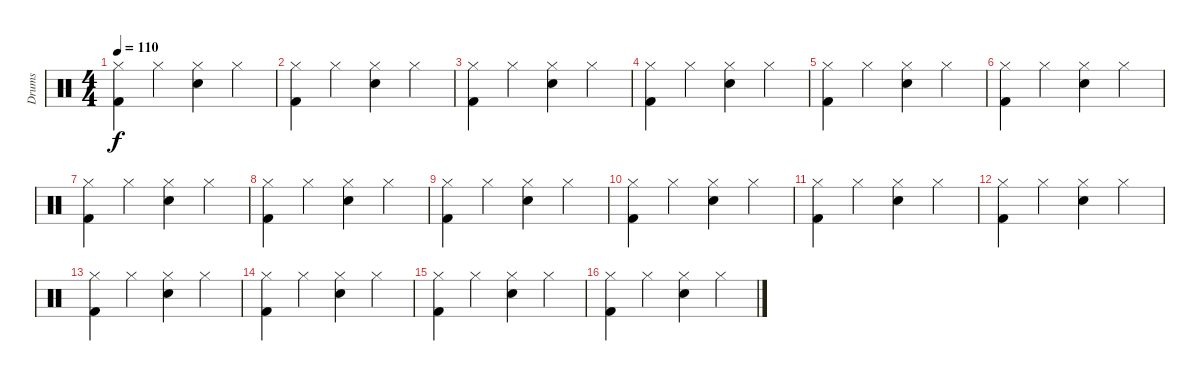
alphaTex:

\track ("Drums" "Drums") {instrument percussion}
\staff {score}
\articulation defaults
\ts (4 4)
\tempo 110
\clef neutral
\ks c
("Hi-Hat (closed)" "Kick (hit) 2").4{dy f} "Hi-Hat (closed)".4 ("Hi-Hat (closed)" "Snare (hit) 2").4 "Hi-Hat (closed)".4 |
("Hi-Hat (closed)" "Kick (hit) 2").4 "Hi-Hat (closed)".4 ("Hi-Hat (closed)" "Snare (hit) 2").4 "Hi-Hat (closed)".4 |
("Hi-Hat (closed)" "Kick (hit) 2").4 "Hi-Hat (closed)".4 ("Hi-Hat (closed)" "Snare (hit) 2").4 "Hi-Hat (closed)".4 |
("Hi-Hat (closed)" "Kick (hit) 2").4 "Hi-Hat (closed)".4 ("Hi-Hat (closed)" "Snare (hit) 2").4 "Hi-Hat (closed)".4 |
("Hi-Hat (closed)" "Kick (hit) 2").4 "Hi-Hat (closed)".4 ("Hi-Hat (closed)" "Snare (hit) 2").4 "Hi-Hat (closed)".4 |
("Hi-Hat (closed)" "Kick (hit) 2").4 "Hi-Hat (closed)".4 ("Hi-Hat (closed)" "Snare (hit) 2").4 "Hi-Hat (closed)".4 |
("Hi-Hat (closed)" "Kick (hit) 2").4 "Hi-Hat (closed)".4 ("Hi-Hat (closed)" "Snare (hit) 2").4 "Hi-Hat (closed)".4 |
("Hi-Hat (closed)" "Kick (hit) 2").4 "Hi-Hat (closed)".4 ("Hi-Hat (closed)" "Snare (hit) 2").4 "Hi-Hat (closed)".4 |
("Hi-Hat (closed)" "Kick (hit) 2").4 "Hi-Hat (closed)".4 ("Hi-Hat (closed)" "Snare (hit) 2").4 "Hi-Hat (closed)".4 |
("Hi-Hat (closed)" "Kick (hit) 2").4 "Hi-Hat (closed)".4 ("Hi-Hat (closed)" "Snare (hit) 2").4 "Hi-Hat (closed)".4 |
("Hi-Hat (closed)" "Kick (hit) 2").4 "Hi-Hat (closed)".4 ("Hi-Hat (closed)" "Snare (hit) 2").4 "Hi-Hat (closed)".4 |
("Hi-Hat (closed)" "Kick (hit) 2").4 "Hi-Hat (closed)".4 ("Hi-Hat (closed)" "Snare (hit) 2").4 "Hi-Hat (closed)".4 |
("Hi-Hat (closed)" "Kick (hit) 2").4 "Hi-Hat (closed)".4 ("Hi-Hat (closed)" "Snare (hit) 2").4 "Hi-Hat (closed)".4 |
("Hi-Hat (closed)" "Kick (hit) 2").4 "Hi-Hat (closed)".4 ("Hi-Hat (closed)" "Snare (hit) 2").4 "Hi-Hat (closed)".4 |
("Hi-Hat (closed)" "Kick (hit) 2").4 "Hi-Hat (closed)".4 ("Hi-Hat (closed)" "Snare (hit) 2").4 "Hi-Hat (closed)".4 |
("Hi-Hat (closed)" "Kick (hit) 2").4 "Hi-Hat (closed)".4 ("Hi-Hat (closed)" "Snare (hit) 2").4 "Hi-Hat (closed)".4
